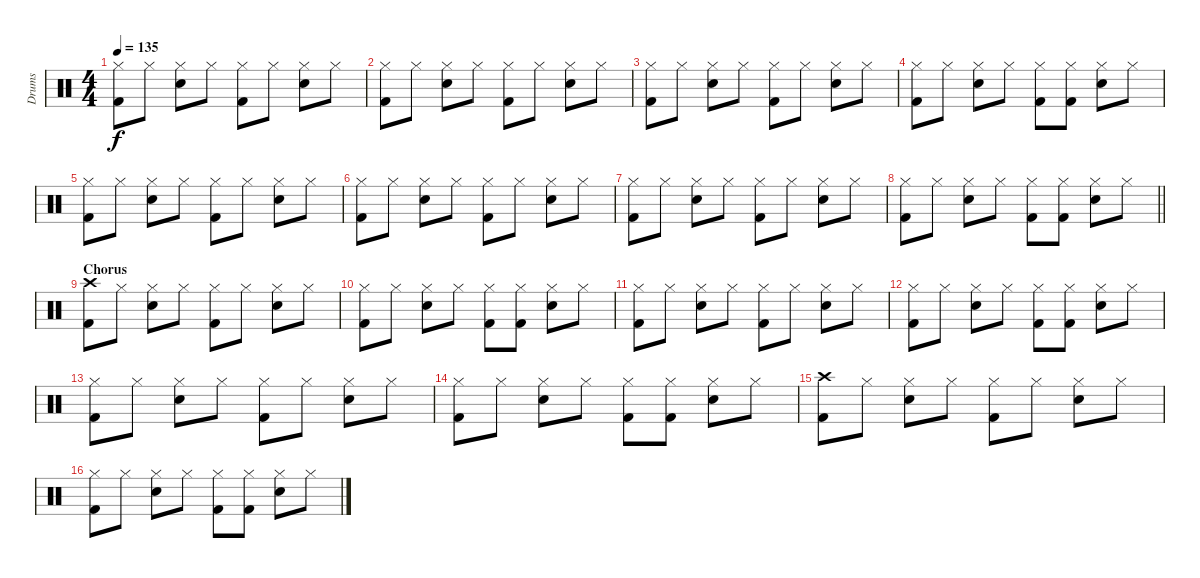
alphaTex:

\track ("Drums" "Drums") {instrument percussion}
\staff {score}
\articulation defaults
\ts (4 4)
\tempo 135
\clef neutral
\ks c
("Hi-Hat (closed)" "Kick (hit) 2").8{dy f} "Hi-Hat (closed)".8 ("Hi-Hat (closed)" "Electric Snare (hit)").8 "Hi-Hat (closed)".8 ("Hi-Hat (closed)" "Kick (hit) 2").8 "Hi-Hat (closed)".8 ("Hi-Hat (closed)" "Electric Snare (hit)").8 "Hi-Hat (closed)".8 |
("Hi-Hat (closed)" "Kick (hit) 2").8 "Hi-Hat (closed)".8 ("Hi-Hat (closed)" "Electric Snare (hit)").8 "Hi-Hat (closed)".8 ("Hi-Hat (closed)" "Kick (hit) 2").8 "Hi-Hat (closed)".8 ("Hi-Hat (closed)" "Electric Snare (hit)").8 "Hi-Hat (closed)".8 |
("Hi-Hat (closed)" "Kick (hit) 2").8 "Hi-Hat (closed)".8 ("Hi-Hat (closed)" "Electric Snare (hit)").8 "Hi-Hat (closed)".8 ("Hi-Hat (closed)" "Kick (hit) 2").8 "Hi-Hat (closed)".8 ("Hi-Hat (closed)" "Electric Snare (hit)").8 "Hi-Hat (closed)".8 |
("Hi-Hat (closed)" "Kick (hit) 2").8 "Hi-Hat (closed)".8 ("Hi-Hat (closed)" "Electric Snare (hit)").8 "Hi-Hat (closed)".8 ("Hi-Hat (closed)" "Kick (hit) 2").8 ("Hi-Hat (closed)" "Kick (hit) 2").8 ("Hi-Hat (closed)" "Electric Snare (hit)").8 "Hi-Hat (closed)".8 |
("Hi-Hat (closed)" "Kick (hit) 2").8 "Hi-Hat (closed)".8 ("Hi-Hat (closed)" "Electric Snare (hit)").8 "Hi-Hat (closed)".8 ("Hi-Hat (closed)" "Kick (hit) 2").8 "Hi-Hat (closed)".8 ("Hi-Hat (closed)" "Electric Snare (hit)").8 "Hi-Hat (closed)".8 |
("Hi-Hat (closed)" "Kick (hit) 2").8 "Hi-Hat (closed)".8 ("Hi-Hat (closed)" "Electric Snare (hit)").8 "Hi-Hat (closed)".8 ("Hi-Hat (closed)" "Kick (hit) 2").8 "Hi-Hat (closed)".8 ("Hi-Hat (closed)" "Electric Snare (hit)").8 "Hi-Hat (closed)".8 |
("Hi-Hat (closed)" "Kick (hit) 2").8 "Hi-Hat (closed)".8 ("Hi-Hat (closed)" "Electric Snare (hit)").8 "Hi-Hat (closed)".8 ("Hi-Hat (closed)" "Kick (hit) 2").8 "Hi-Hat (closed)".8 ("Hi-Hat (closed)" "Electric Snare (hit)").8 "Hi-Hat (closed)".8 |
\barLineRight lightlight
("Hi-Hat (closed)" "Kick (hit) 2").8 "Hi-Hat (closed)".8 ("Hi-Hat (closed)" "Electric Snare (hit)").8 "Hi-Hat (closed)".8 ("Hi-Hat (closed)" "Kick (hit) 2").8 ("Hi-Hat (closed)" "Kick (hit) 2").8 ("Hi-Hat (closed)" "Electric Snare (hit)").8 "Hi-Hat (closed)".8 |
\section ("" "Chorus")
("Crash high (hit)" "Kick (hit) 2").8 "Hi-Hat (closed)".8 ("Hi-Hat (closed)" "Electric Snare (hit)").8 "Hi-Hat (closed)".8 ("Hi-Hat (closed)" "Kick (hit) 2").8 "Hi-Hat (closed)".8 ("Hi-Hat (closed)" "Electric Snare (hit)").8 "Hi-Hat (closed)".8 |
("Hi-Hat (closed)" "Kick (hit) 2").8 "Hi-Hat (closed)".8 ("Hi-Hat (closed)" "Electric Snare (hit)").8 "Hi-Hat (closed)".8 ("Hi-Hat (closed)" "Kick (hit) 2").8 ("Hi-Hat (closed)" "Kick (hit) 2").8 ("Hi-Hat (closed)" "Electric Snare (hit)").8 "Hi-Hat (closed)".8 |
("Hi-Hat (closed)" "Kick (hit) 2").8 "Hi-Hat (closed)".8 ("Hi-Hat (closed)" "Electric Snare (hit)").8 "Hi-Hat (closed)".8 ("Hi-Hat (closed)" "Kick (hit) 2").8 "Hi-Hat (closed)".8 ("Hi-Hat (closed)" "Electric Snare (hit)").8 "Hi-Hat (closed)".8 |
("Hi-Hat (closed)" "Kick (hit) 2").8 "Hi-Hat (closed)".8 ("Hi-Hat (closed)" "Electric Snare (hit)").8 "Hi-Hat (closed)".8 ("Hi-Hat (closed)" "Kick (hit) 2").8 ("Hi-Hat (closed)" "Kick (hit) 2").8 ("Hi-Hat (closed)" "Electric Snare (hit)").8 "Hi-Hat (closed)".8 |
("Hi-Hat (closed)" "Kick (hit) 2").8 "Hi-Hat (closed)".8 ("Hi-Hat (closed)" "Electric Snare (hit)").8 "Hi-Hat (closed)".8 ("Hi-Hat (closed)" "Kick (hit) 2").8 "Hi-Hat (closed)".8 ("Hi-Hat (closed)" "Electric Snare (hit)").8 "Hi-Hat (closed)".8 |
("Hi-Hat (closed)" "Kick (hit) 2").8 "Hi-Hat (closed)".8 ("Hi-Hat (closed)" "Electric Snare (hit)").8 "Hi-Hat (closed)".8 ("Hi-Hat (closed)" "Kick (hit) 2").8 ("Hi-Hat (closed)" "Kick (hit) 2").8 ("Hi-Hat (closed)" "Electric Snare (hit)").8 "Hi-Hat (closed)".8 |
("Crash high (hit)" "Kick (hit) 2").8 "Hi-Hat (closed)".8 ("Hi-Hat (closed)" "Electric Snare (hit)").8 "Hi-Hat (closed)".8 ("Hi-Hat (closed)" "Kick (hit) 2").8 "Hi-Hat (closed)".8 ("Hi-Hat (closed)" "Electric Snare (hit)").8 "Hi-Hat (closed)".8 |
("Hi-Hat (closed)" "Kick (hit) 2").8 "Hi-Hat (closed)".8 ("Hi-Hat (closed)" "Electric Snare (hit)").8 "Hi-Hat (closed)".8 ("Hi-Hat (closed)" "Kick (hit) 2").8 ("Hi-Hat (closed)" "Kick (hit) 2").8 ("Hi-Hat (closed)" "Electric Snare (hit)").8 "Hi-Hat (closed)".8
